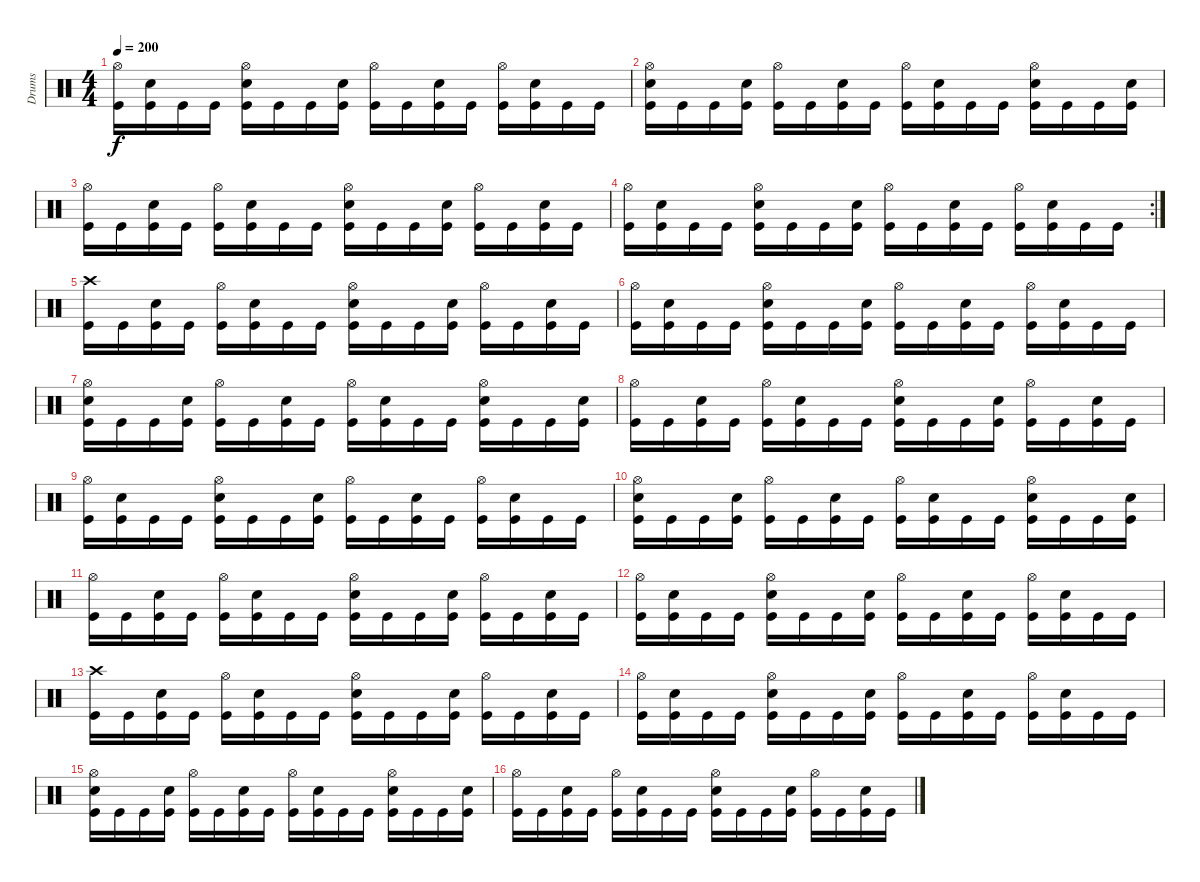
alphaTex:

\track ("Drums" "Drums") {instrument percussion}
\staff {score}
\articulation defaults
\ts (4 4)
\tempo 200
\clef neutral
\ks c
("Hi-Hat (open)" "Kick (hit)").16{dy f} ("Snare (hit) 2" "Kick (hit)").16 "Kick (hit)".16 "Kick (hit)".16 ("Hi-Hat (open)" "Snare (hit) 2" "Kick (hit)").16 "Kick (hit)".16 "Kick (hit)".16 ("Snare (hit) 2" "Kick (hit)").16 ("Hi-Hat (open)" "Kick (hit)").16 "Kick (hit)".16 ("Snare (hit) 2" "Kick (hit)").16 "Kick (hit)".16 ("Hi-Hat (open)" "Kick (hit)").16 ("Snare (hit) 2" "Kick (hit)").16 "Kick (hit)".16 "Kick (hit)".16 |
("Hi-Hat (open)" "Snare (hit) 2" "Kick (hit)").16 "Kick (hit)".16 "Kick (hit)".16 ("Snare (hit) 2" "Kick (hit)").16 ("Hi-Hat (open)" "Kick (hit)").16 "Kick (hit)".16 ("Snare (hit) 2" "Kick (hit)").16 "Kick (hit)".16 ("Hi-Hat (open)" "Kick (hit)").16 ("Snare (hit) 2" "Kick (hit)").16 "Kick (hit)".16 "Kick (hit)".16 ("Hi-Hat (open)" "Snare (hit) 2" "Kick (hit)").16 "Kick (hit)".16 "Kick (hit)".16 ("Snare (hit) 2" "Kick (hit)").16 |
("Hi-Hat (open)" "Kick (hit)").16 "Kick (hit)".16 ("Snare (hit) 2" "Kick (hit)").16 "Kick (hit)".16 ("Hi-Hat (open)" "Kick (hit)").16 ("Snare (hit) 2" "Kick (hit)").16 "Kick (hit)".16 "Kick (hit)".16 ("Hi-Hat (open)" "Snare (hit) 2" "Kick (hit)").16 "Kick (hit)".16 "Kick (hit)".16 ("Snare (hit) 2" "Kick (hit)").16 ("Hi-Hat (open)" "Kick (hit)").16 "Kick (hit)".16 ("Snare (hit) 2" "Kick (hit)").16 "Kick (hit)".16 |
\rc 2
("Hi-Hat (open)" "Kick (hit)").16 ("Snare (hit) 2" "Kick (hit)").16 "Kick (hit)".16 "Kick (hit)".16 ("Hi-Hat (open)" "Snare (hit) 2" "Kick (hit)").16 "Kick (hit)".16 "Kick (hit)".16 ("Snare (hit) 2" "Kick (hit)").16 ("Hi-Hat (open)" "Kick (hit)").16 "Kick (hit)".16 ("Snare (hit) 2" "Kick (hit)").16 "Kick (hit)".16 ("Hi-Hat (open)" "Kick (hit)").16 ("Snare (hit) 2" "Kick (hit)").16 "Kick (hit)".16 "Kick (hit)".16 |
("Crash high (hit)" "Kick (hit)").16 "Kick (hit)".16 ("Snare (hit) 2" "Kick (hit)").16 "Kick (hit)".16 ("Hi-Hat (open)" "Kick (hit)").16 ("Snare (hit) 2" "Kick (hit)").16 "Kick (hit)".16 "Kick (hit)".16 ("Hi-Hat (open)" "Snare (hit) 2" "Kick (hit)").16 "Kick (hit)".16 "Kick (hit)".16 ("Snare (hit) 2" "Kick (hit)").16 ("Hi-Hat (open)" "Kick (hit)").16 "Kick (hit)".16 ("Snare (hit) 2" "Kick (hit)").16 "Kick (hit)".16 |
("Hi-Hat (open)" "Kick (hit)").16 ("Snare (hit) 2" "Kick (hit)").16 "Kick (hit)".16 "Kick (hit)".16 ("Hi-Hat (open)" "Snare (hit) 2" "Kick (hit)").16 "Kick (hit)".16 "Kick (hit)".16 ("Snare (hit) 2" "Kick (hit)").16 ("Hi-Hat (open)" "Kick (hit)").16 "Kick (hit)".16 ("Snare (hit) 2" "Kick (hit)").16 "Kick (hit)".16 ("Hi-Hat (open)" "Kick (hit)").16 ("Snare (hit) 2" "Kick (hit)").16 "Kick (hit)".16 "Kick (hit)".16 |
("Hi-Hat (open)" "Snare (hit) 2" "Kick (hit)").16 "Kick (hit)".16 "Kick (hit)".16 ("Snare (hit) 2" "Kick (hit)").16 ("Hi-Hat (open)" "Kick (hit)").16 "Kick (hit)".16 ("Snare (hit) 2" "Kick (hit)").16 "Kick (hit)".16 ("Hi-Hat (open)" "Kick (hit)").16 ("Snare (hit) 2" "Kick (hit)").16 "Kick (hit)".16 "Kick (hit)".16 ("Hi-Hat (open)" "Snare (hit) 2" "Kick (hit)").16 "Kick (hit)".16 "Kick (hit)".16 ("Snare (hit) 2" "Kick (hit)").16 |
("Hi-Hat (open)" "Kick (hit)").16 "Kick (hit)".16 ("Snare (hit) 2" "Kick (hit)").16 "Kick (hit)".16 ("Hi-Hat (open)" "Kick (hit)").16 ("Snare (hit) 2" "Kick (hit)").16 "Kick (hit)".16 "Kick (hit)".16 ("Hi-Hat (open)" "Snare (hit) 2" "Kick (hit)").16 "Kick (hit)".16 "Kick (hit)".16 ("Snare (hit) 2" "Kick (hit)").16 ("Hi-Hat (open)" "Kick (hit)").16 "Kick (hit)".16 ("Snare (hit) 2" "Kick (hit)").16 "Kick (hit)".16 |
("Hi-Hat (open)" "Kick (hit)").16 ("Snare (hit) 2" "Kick (hit)").16 "Kick (hit)".16 "Kick (hit)".16 ("Hi-Hat (open)" "Snare (hit) 2" "Kick (hit)").16 "Kick (hit)".16 "Kick (hit)".16 ("Snare (hit) 2" "Kick (hit)").16 ("Hi-Hat (open)" "Kick (hit)").16 "Kick (hit)".16 ("Snare (hit) 2" "Kick (hit)").16 "Kick (hit)".16 ("Hi-Hat (open)" "Kick (hit)").16 ("Snare (hit) 2" "Kick (hit)").16 "Kick (hit)".16 "Kick (hit)".16 |
("Hi-Hat (open)" "Snare (hit) 2" "Kick (hit)").16 "Kick (hit)".16 "Kick (hit)".16 ("Snare (hit) 2" "Kick (hit)").16 ("Hi-Hat (open)" "Kick (hit)").16 "Kick (hit)".16 ("Snare (hit) 2" "Kick (hit)").16 "Kick (hit)".16 ("Hi-Hat (open)" "Kick (hit)").16 ("Snare (hit) 2" "Kick (hit)").16 "Kick (hit)".16 "Kick (hit)".16 ("Hi-Hat (open)" "Snare (hit) 2" "Kick (hit)").16 "Kick (hit)".16 "Kick (hit)".16 ("Snare (hit) 2" "Kick (hit)").16 |
("Hi-Hat (open)" "Kick (hit)").16 "Kick (hit)".16 ("Snare (hit) 2" "Kick (hit)").16 "Kick (hit)".16 ("Hi-Hat (open)" "Kick (hit)").16 ("Snare (hit) 2" "Kick (hit)").16 "Kick (hit)".16 "Kick (hit)".16 ("Hi-Hat (open)" "Snare (hit) 2" "Kick (hit)").16 "Kick (hit)".16 "Kick (hit)".16 ("Snare (hit) 2" "Kick (hit)").16 ("Hi-Hat (open)" "Kick (hit)").16 "Kick (hit)".16 ("Snare (hit) 2" "Kick (hit)").16 "Kick (hit)".16 |
("Hi-Hat (open)" "Kick (hit)").16 ("Snare (hit) 2" "Kick (hit)").16 "Kick (hit)".16 "Kick (hit)".16 ("Hi-Hat (open)" "Snare (hit) 2" "Kick (hit)").16 "Kick (hit)".16 "Kick (hit)".16 ("Snare (hit) 2" "Kick (hit)").16 ("Hi-Hat (open)" "Kick (hit)").16 "Kick (hit)".16 ("Snare (hit) 2" "Kick (hit)").16 "Kick (hit)".16 ("Hi-Hat (open)" "Kick (hit)").16 ("Snare (hit) 2" "Kick (hit)").16 "Kick (hit)".16 "Kick (hit)".16 |
("Crash high (hit)" "Kick (hit)").16 "Kick (hit)".16 ("Snare (hit) 2" "Kick (hit)").16 "Kick (hit)".16 ("Hi-Hat (open)" "Kick (hit)").16 ("Snare (hit) 2" "Kick (hit)").16 "Kick (hit)".16 "Kick (hit)".16 ("Hi-Hat (open)" "Snare (hit) 2" "Kick (hit)").16 "Kick (hit)".16 "Kick (hit)".16 ("Snare (hit) 2" "Kick (hit)").16 ("Hi-Hat (open)" "Kick (hit)").16 "Kick (hit)".16 ("Snare (hit) 2" "Kick (hit)").16 "Kick (hit)".16 |
("Hi-Hat (open)" "Kick (hit)").16 ("Snare (hit) 2" "Kick (hit)").16 "Kick (hit)".16 "Kick (hit)".16 ("Hi-Hat (open)" "Snare (hit) 2" "Kick (hit)").16 "Kick (hit)".16 "Kick (hit)".16 ("Snare (hit) 2" "Kick (hit)").16 ("Hi-Hat (open)" "Kick (hit)").16 "Kick (hit)".16 ("Snare (hit) 2" "Kick (hit)").16 "Kick (hit)".16 ("Hi-Hat (open)" "Kick (hit)").16 ("Snare (hit) 2" "Kick (hit)").16 "Kick (hit)".16 "Kick (hit)".16 |
("Hi-Hat (open)" "Snare (hit) 2" "Kick (hit)").16 "Kick (hit)".16 "Kick (hit)".16 ("Snare (hit) 2" "Kick (hit)").16 ("Hi-Hat (open)" "Kick (hit)").16 "Kick (hit)".16 ("Snare (hit) 2" "Kick (hit)").16 "Kick (hit)".16 ("Hi-Hat (open)" "Kick (hit)").16 ("Snare (hit) 2" "Kick (hit)").16 "Kick (hit)".16 "Kick (hit)".16 ("Hi-Hat (open)" "Snare (hit) 2" "Kick (hit)").16 "Kick (hit)".16 "Kick (hit)".16 ("Snare (hit) 2" "Kick (hit)").16 |
("Hi-Hat (open)" "Kick (hit)").16 "Kick (hit)".16 ("Snare (hit) 2" "Kick (hit)").16 "Kick (hit)".16 ("Hi-Hat (open)" "Kick (hit)").16 ("Snare (hit) 2" "Kick (hit)").16 "Kick (hit)".16 "Kick (hit)".16 ("Hi-Hat (open)" "Snare (hit) 2" "Kick (hit)").16 "Kick (hit)".16 "Kick (hit)".16 ("Snare (hit) 2" "Kick (hit)").16 ("Hi-Hat (open)" "Kick (hit)").16 "Kick (hit)".16 ("Snare (hit) 2" "Kick (hit)").16 "Kick (hit)".16
